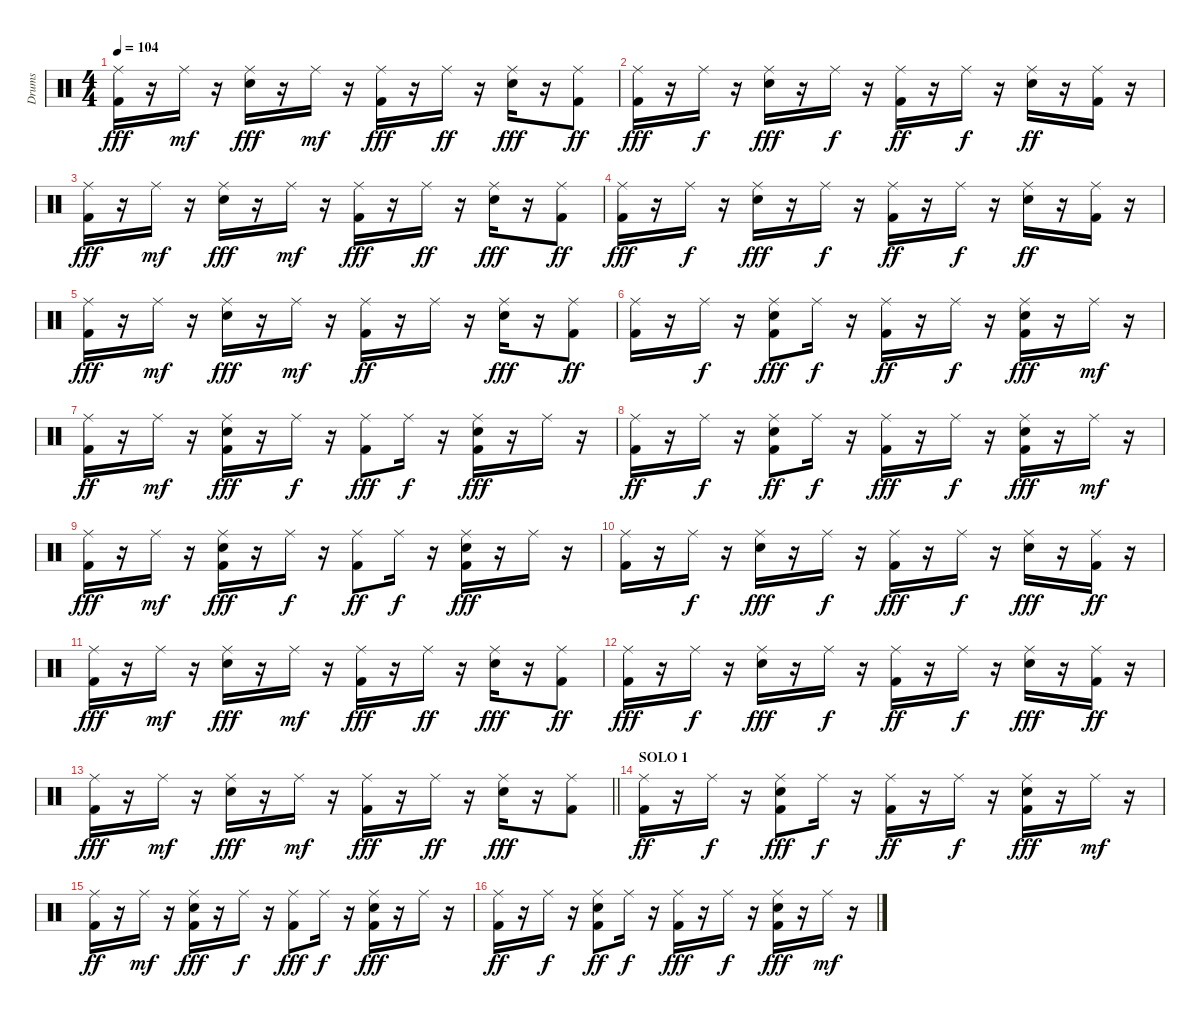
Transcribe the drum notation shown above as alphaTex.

\track ("Drums" "Drums") {instrument percussion}
\staff {score}
\articulation defaults
\ts (4 4)
\tempo 104
\clef neutral
\ks c
("Kick (hit) 2" "Ride (middle)").16{dy fff} r.16 "Ride (middle)".16{dy mf} r.16 ("Ride (middle)" "Snare (hit) 2").16{dy fff} r.16 "Ride (middle)".16{dy mf} r.16 ("Ride (middle)" "Kick (hit) 2").16{dy fff} r.16 "Ride (middle)".16{dy ff} r.16 ("Ride (middle)" "Snare (hit) 2").16{dy fff} r.16 ("Ride (middle)" "Kick (hit) 2").8{dy ff} |
("Ride (middle)" "Kick (hit) 2").16{dy fff} r.16 "Ride (middle)".16{dy f} r.16 ("Snare (hit) 2" "Ride (middle)").16{dy fff} r.16 "Ride (middle)".16{dy f} r.16 ("Kick (hit) 2" "Ride (middle)").16{dy ff} r.16 "Ride (middle)".16{dy f} r.16 ("Snare (hit) 2" "Ride (middle)").16{dy ff} r.16 ("Ride (middle)" "Kick (hit) 2").16 r.16 |
("Kick (hit) 2" "Ride (middle)").16{dy fff} r.16 "Ride (middle)".16{dy mf} r.16 ("Snare (hit) 2" "Ride (middle)").16{dy fff} r.16 "Ride (middle)".16{dy mf} r.16 ("Ride (middle)" "Kick (hit) 2").16{dy fff} r.16 "Ride (middle)".16{dy ff} r.16 ("Ride (middle)" "Snare (hit) 2").16{dy fff} r.16 ("Ride (middle)" "Kick (hit) 2").8{dy ff} |
("Ride (middle)" "Kick (hit) 2").16{dy fff} r.16 "Ride (middle)".16{dy f} r.16 ("Snare (hit) 2" "Ride (middle)").16{dy fff} r.16 "Ride (middle)".16{dy f} r.16 ("Kick (hit) 2" "Ride (middle)").16{dy ff} r.16 "Ride (middle)".16{dy f} r.16 ("Snare (hit) 2" "Ride (middle)").16{dy ff} r.16 ("Ride (middle)" "Kick (hit) 2").16 r.16 |
("Kick (hit) 2" "Ride (middle)").16{dy fff} r.16 "Ride (middle)".16{dy mf} r.16 ("Ride (middle)" "Snare (hit) 2").16{dy fff} r.16 "Ride (middle)".16{dy mf} r.16 ("Kick (hit) 2" "Ride (middle)").16{dy ff} r.16 "Ride (middle)".16 r.16 ("Ride (middle)" "Snare (hit) 2").16{dy fff} r.16 ("Ride (middle)" "Kick (hit) 2").8{dy ff} |
("Ride (middle)" "Kick (hit) 2").16 r.16 "Ride (middle)".16{dy f} r.16 ("Kick (hit) 2" "Ride (middle)" "Snare (hit) 2").8{dy fff} "Ride (middle)".16{dy f} r.16 ("Kick (hit) 2" "Ride (middle)").16{dy ff} r.16 "Ride (middle)".16{dy f} r.16 ("Ride (middle)" "Kick (hit) 2" "Snare (hit) 2").16{dy fff} r.16 "Ride (middle)".16{dy mf} r.16 |
("Kick (hit) 2" "Ride (middle)").16{dy ff} r.16 "Ride (middle)".16{dy mf} r.16 ("Snare (hit) 2" "Ride (middle)" "Kick (hit) 2").16{dy fff} r.16 "Ride (middle)".16{dy f} r.16 ("Ride (middle)" "Kick (hit) 2").8{dy fff} "Ride (middle)".16{dy f} r.16 ("Snare (hit) 2" "Ride (middle)" "Kick (hit) 2").16{dy fff} r.16 "Ride (middle)".16 r.16 |
("Kick (hit) 2" "Ride (middle)").16{dy ff} r.16 "Ride (middle)".16{dy f} r.16 ("Kick (hit) 2" "Snare (hit) 2" "Ride (middle)").8{dy ff} "Ride (middle)".16{dy f} r.16 ("Ride (middle)" "Kick (hit) 2").16{dy fff} r.16 "Ride (middle)".16{dy f} r.16 ("Snare (hit) 2" "Ride (middle)" "Kick (hit) 2").16{dy fff} r.16 "Ride (middle)".16{dy mf} r.16 |
("Ride (middle)" "Kick (hit) 2").16{dy fff} r.16 "Ride (middle)".16{dy mf} r.16 ("Snare (hit) 2" "Ride (middle)" "Kick (hit) 2").16{dy fff} r.16 "Ride (middle)".16{dy f} r.16 ("Kick (hit) 2" "Ride (middle)").8{dy ff} "Ride (middle)".16{dy f} r.16 ("Snare (hit) 2" "Ride (middle)" "Kick (hit) 2").16{dy fff} r.16 "Ride (middle)".16 r.16 |
("Ride (middle)" "Kick (hit) 2").16 r.16 "Ride (middle)".16{dy f} r.16 ("Ride (middle)" "Snare (hit) 2").16{dy fff} r.16 "Ride (middle)".16{dy f} r.16 ("Ride (middle)" "Kick (hit) 2").16{dy fff} r.16 "Ride (middle)".16{dy f} r.16 ("Ride (middle)" "Snare (hit) 2").16{dy fff} r.16 ("Kick (hit) 2" "Ride (middle)").16{dy ff} r.16 |
("Ride (middle)" "Kick (hit) 2").16{dy fff} r.16 "Ride (middle)".16{dy mf} r.16 ("Snare (hit) 2" "Ride (middle)").16{dy fff} r.16 "Ride (middle)".16{dy mf} r.16 ("Ride (middle)" "Kick (hit) 2").16{dy fff} r.16 "Ride (middle)".16{dy ff} r.16 ("Snare (hit) 2" "Ride (middle)").16{dy fff} r.16 ("Ride (middle)" "Kick (hit) 2").8{dy ff} |
("Ride (middle)" "Kick (hit) 2").16{dy fff} r.16 "Ride (middle)".16{dy f} r.16 ("Snare (hit) 2" "Ride (middle)").16{dy fff} r.16 "Ride (middle)".16{dy f} r.16 ("Kick (hit) 2" "Ride (middle)").16{dy ff} r.16 "Ride (middle)".16{dy f} r.16 ("Ride (middle)" "Snare (hit) 2").16{dy fff} r.16 ("Kick (hit) 2" "Ride (middle)").16{dy ff} r.16 |
\barLineRight lightlight
("Ride (middle)" "Kick (hit) 2").16{dy fff} r.16 "Ride (middle)".16{dy mf} r.16 ("Snare (hit) 2" "Ride (middle)").16{dy fff} r.16 "Ride (middle)".16{dy mf} r.16 ("Ride (middle)" "Kick (hit) 2").16{dy fff} r.16 "Ride (middle)".16{dy ff} r.16 ("Ride (middle)" "Snare (hit) 2").16{dy fff} r.16 ("Kick (hit) 2" "Ride (middle)").8 |
\section ("" "SOLO 1")
("Ride (middle)" "Kick (hit) 2").16{dy ff} r.16 "Ride (middle)".16{dy f} r.16 ("Kick (hit) 2" "Ride (middle)" "Snare (hit) 2").8{dy fff} "Ride (middle)".16{dy f} r.16 ("Kick (hit) 2" "Ride (middle)").16{dy ff} r.16 "Ride (middle)".16{dy f} r.16 ("Ride (middle)" "Kick (hit) 2" "Snare (hit) 2").16{dy fff} r.16 "Ride (middle)".16{dy mf} r.16 |
("Kick (hit) 2" "Ride (middle)").16{dy ff} r.16 "Ride (middle)".16{dy mf} r.16 ("Snare (hit) 2" "Ride (middle)" "Kick (hit) 2").16{dy fff} r.16 "Ride (middle)".16{dy f} r.16 ("Ride (middle)" "Kick (hit) 2").8{dy fff} "Ride (middle)".16{dy f} r.16 ("Snare (hit) 2" "Ride (middle)" "Kick (hit) 2").16{dy fff} r.16 "Ride (middle)".16 r.16 |
("Kick (hit) 2" "Ride (middle)").16{dy ff} r.16 "Ride (middle)".16{dy f} r.16 ("Kick (hit) 2" "Snare (hit) 2" "Ride (middle)").8{dy ff} "Ride (middle)".16{dy f} r.16 ("Ride (middle)" "Kick (hit) 2").16{dy fff} r.16 "Ride (middle)".16{dy f} r.16 ("Snare (hit) 2" "Ride (middle)" "Kick (hit) 2").16{dy fff} r.16 "Ride (middle)".16{dy mf} r.16
